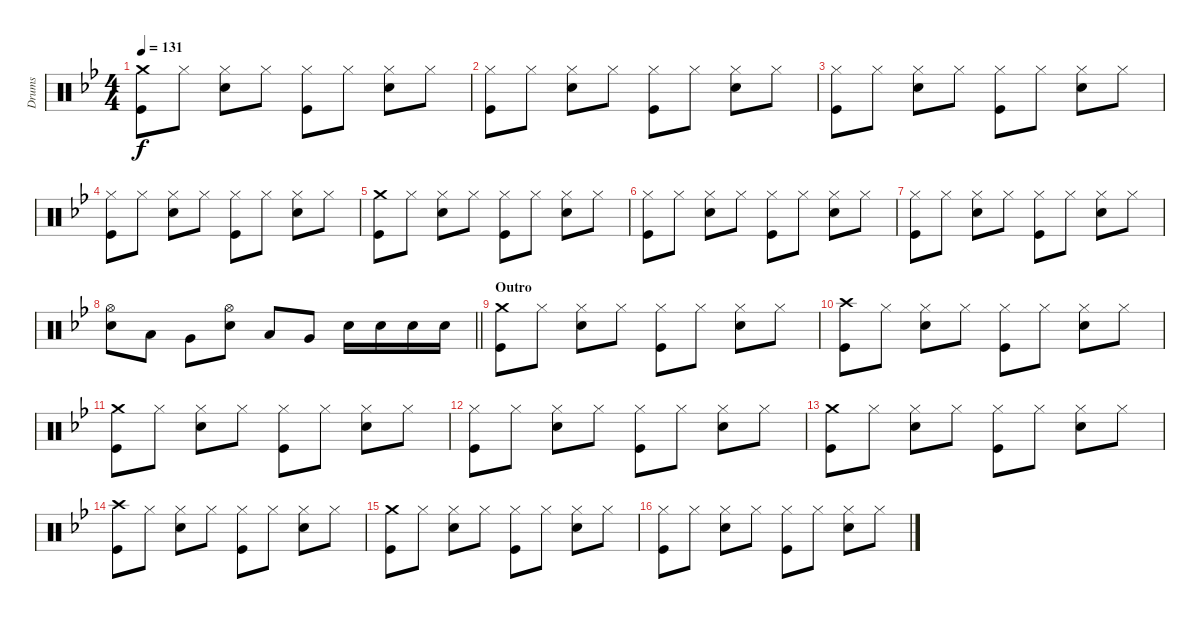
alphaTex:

\track ("Drums" "Drums") {instrument percussion}
\staff {score}
\articulation defaults
\ts (4 4)
\tempo 131
\clef neutral
\ks bb
("Crash medium (hit)" "Kick (hit)").8{dy f} "Hi-Hat (closed)".8 ("Hi-Hat (closed)" "Snare (hit) 2").8 "Hi-Hat (closed)".8 ("Hi-Hat (closed)" "Kick (hit)").8 "Hi-Hat (closed)".8 ("Hi-Hat (closed)" "Snare (hit) 2").8 "Hi-Hat (closed)".8 |
("Hi-Hat (closed)" "Kick (hit)").8 "Hi-Hat (closed)".8 ("Hi-Hat (closed)" "Snare (hit) 2").8 "Hi-Hat (closed)".8 ("Hi-Hat (closed)" "Kick (hit)").8 "Hi-Hat (closed)".8 ("Hi-Hat (closed)" "Snare (hit) 2").8 "Hi-Hat (closed)".8 |
("Hi-Hat (closed)" "Kick (hit)").8 "Hi-Hat (closed)".8 ("Hi-Hat (closed)" "Snare (hit) 2").8 "Hi-Hat (closed)".8 ("Hi-Hat (closed)" "Kick (hit)").8 "Hi-Hat (closed)".8 ("Hi-Hat (closed)" "Snare (hit) 2").8 "Hi-Hat (closed)".8 |
("Hi-Hat (closed)" "Kick (hit)").8 "Hi-Hat (closed)".8 ("Hi-Hat (closed)" "Snare (hit) 2").8 "Hi-Hat (closed)".8 ("Hi-Hat (closed)" "Kick (hit)").8 "Hi-Hat (closed)".8 ("Hi-Hat (closed)" "Snare (hit) 2").8 "Hi-Hat (closed)".8 |
("Crash medium (hit)" "Kick (hit)").8 "Hi-Hat (closed)".8 ("Hi-Hat (closed)" "Snare (hit) 2").8 "Hi-Hat (closed)".8 ("Hi-Hat (closed)" "Kick (hit)").8 "Hi-Hat (closed)".8 ("Hi-Hat (closed)" "Snare (hit) 2").8 "Hi-Hat (closed)".8 |
("Hi-Hat (closed)" "Kick (hit)").8 "Hi-Hat (closed)".8 ("Hi-Hat (closed)" "Snare (hit) 2").8 "Hi-Hat (closed)".8 ("Hi-Hat (closed)" "Kick (hit)").8 "Hi-Hat (closed)".8 ("Hi-Hat (closed)" "Snare (hit) 2").8 "Hi-Hat (closed)".8 |
("Hi-Hat (closed)" "Kick (hit)").8 "Hi-Hat (closed)".8 ("Hi-Hat (closed)" "Snare (hit) 2").8 "Hi-Hat (closed)".8 ("Hi-Hat (closed)" "Kick (hit)").8 "Hi-Hat (closed)".8 ("Hi-Hat (closed)" "Snare (hit) 2").8 "Hi-Hat (closed)".8 |
\barLineRight lightlight
("Hi-Hat (open)" "Snare (hit) 2").8 "Low Tom (hit)".8 "Very Low Tom (hit)".8 ("Hi-Hat (open)" "Snare (hit) 2").8 "Low Tom (hit)".8 "Very Low Tom (hit)".8 "Snare (hit) 2".16 "Snare (hit) 2".16 "Snare (hit) 2".16 "Snare (hit) 2".16 |
\section ("" "Outro")
("Crash medium (hit)" "Kick (hit)").8 "Hi-Hat (closed)".8 ("Hi-Hat (closed)" "Snare (hit) 2").8 "Hi-Hat (closed)".8 ("Hi-Hat (closed)" "Kick (hit)").8 "Hi-Hat (closed)".8 ("Hi-Hat (closed)" "Snare (hit) 2").8 "Hi-Hat (closed)".8 |
("Crash high (hit)" "Kick (hit)").8 "Hi-Hat (closed)".8 ("Hi-Hat (closed)" "Snare (hit) 2").8 "Hi-Hat (closed)".8 ("Hi-Hat (closed)" "Kick (hit)").8 "Hi-Hat (closed)".8 ("Hi-Hat (closed)" "Snare (hit) 2").8 "Hi-Hat (closed)".8 |
("Crash medium (hit)" "Kick (hit)").8 "Hi-Hat (closed)".8 ("Hi-Hat (closed)" "Snare (hit) 2").8 "Hi-Hat (closed)".8 ("Hi-Hat (closed)" "Kick (hit)").8 "Hi-Hat (closed)".8 ("Hi-Hat (closed)" "Snare (hit) 2").8 "Hi-Hat (closed)".8 |
("Hi-Hat (closed)" "Kick (hit)").8 "Hi-Hat (closed)".8 ("Hi-Hat (closed)" "Snare (hit) 2").8 "Hi-Hat (closed)".8 ("Hi-Hat (closed)" "Kick (hit)").8 "Hi-Hat (closed)".8 ("Hi-Hat (closed)" "Snare (hit) 2").8 "Hi-Hat (closed)".8 |
("Crash medium (hit)" "Kick (hit)").8 "Hi-Hat (closed)".8 ("Hi-Hat (closed)" "Snare (hit) 2").8 "Hi-Hat (closed)".8 ("Hi-Hat (closed)" "Kick (hit)").8 "Hi-Hat (closed)".8 ("Hi-Hat (closed)" "Snare (hit) 2").8 "Hi-Hat (closed)".8 |
("Crash high (hit)" "Kick (hit)").8 "Hi-Hat (closed)".8 ("Hi-Hat (closed)" "Snare (hit) 2").8 "Hi-Hat (closed)".8 ("Hi-Hat (closed)" "Kick (hit)").8 "Hi-Hat (closed)".8 ("Hi-Hat (closed)" "Snare (hit) 2").8 "Hi-Hat (closed)".8 |
("Crash medium (hit)" "Kick (hit)").8 "Hi-Hat (closed)".8 ("Hi-Hat (closed)" "Snare (hit) 2").8 "Hi-Hat (closed)".8 ("Hi-Hat (closed)" "Kick (hit)").8 "Hi-Hat (closed)".8 ("Hi-Hat (closed)" "Snare (hit) 2").8 "Hi-Hat (closed)".8 |
("Hi-Hat (closed)" "Kick (hit)").8 "Hi-Hat (closed)".8 ("Hi-Hat (closed)" "Snare (hit) 2").8 "Hi-Hat (closed)".8 ("Hi-Hat (closed)" "Kick (hit)").8 "Hi-Hat (closed)".8 ("Hi-Hat (closed)" "Snare (hit) 2").8 "Hi-Hat (closed)".8
